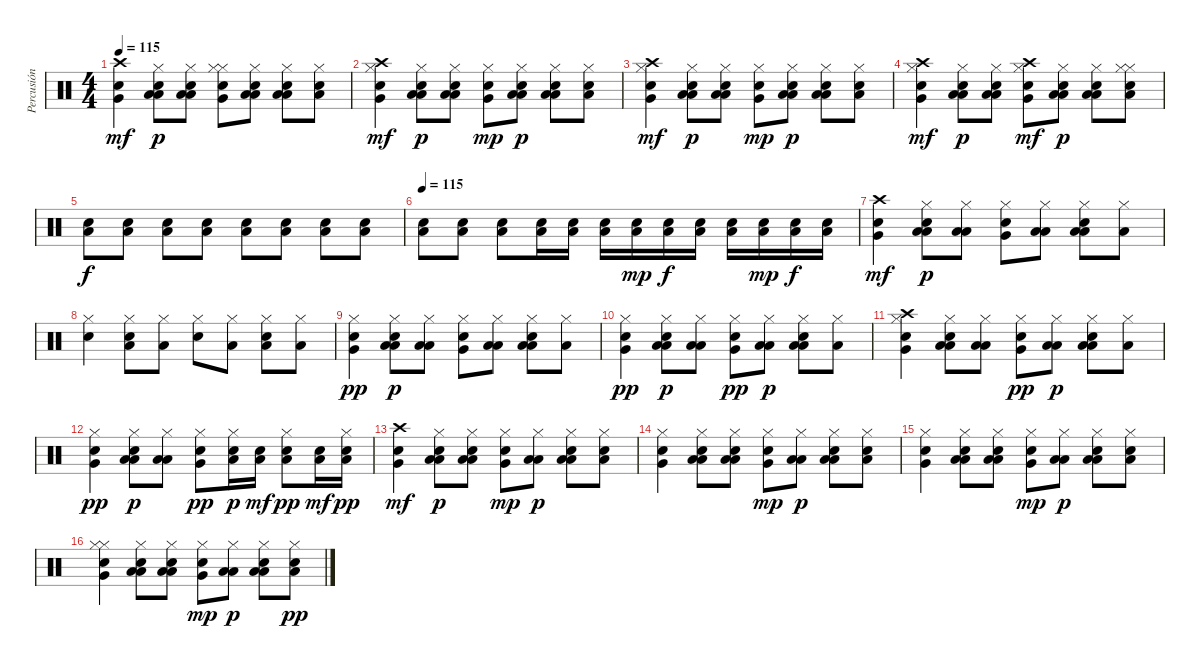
\track ("Percusión" "Percusión") {instrument percussion}
\staff {score}
\articulation defaults
\ts (4 4)
\tempo 115
\clef neutral
\ks c
("Snare (hit) 2" "Very Low Tom (hit)" "Crash high (hit)").4{dy mf} ("Low Floor Tom (hit)" "Low Floor Tom (hit)" "Snare (hit) 2" "Hi-Hat (closed)").8{dy p} ("Low Floor Tom (hit)" "Low Floor Tom (hit)" "Snare (hit) 2" "Hi-Hat (closed)").8 ("Snare (hit) 2" "Very Low Tom (hit)" "Hi-Hat (closed)" "Hi-Hat (closed)").8 ("Low Floor Tom (hit)" "Low Floor Tom (hit)" "Snare (hit) 2" "Hi-Hat (closed)").8 ("Low Floor Tom (hit)" "Low Floor Tom (hit)" "Snare (hit) 2" "Hi-Hat (closed)").8 ("Low Floor Tom (hit)" "Snare (hit) 2" "Hi-Hat (closed)").8 |
("Snare (hit) 2" "Very Low Tom (hit)" "Hi-Hat (closed)" "Crash high (hit)").4{dy mf} ("Low Floor Tom (hit)" "Low Floor Tom (hit)" "Snare (hit) 2" "Hi-Hat (closed)").8{dy p} ("Low Floor Tom (hit)" "Low Floor Tom (hit)" "Snare (hit) 2" "Hi-Hat (closed)").8 ("Snare (hit) 2" "Very Low Tom (hit)" "Hi-Hat (closed)").8{dy mp} ("Low Floor Tom (hit)" "Low Floor Tom (hit)" "Snare (hit) 2" "Hi-Hat (closed)").8{dy p} ("Low Floor Tom (hit)" "Low Floor Tom (hit)" "Snare (hit) 2" "Hi-Hat (closed)").8 ("Low Floor Tom (hit)" "Snare (hit) 2" "Hi-Hat (closed)").8 |
("Snare (hit) 2" "Very Low Tom (hit)" "Hi-Hat (closed)" "Crash high (hit)").4{dy mf} ("Low Floor Tom (hit)" "Low Floor Tom (hit)" "Snare (hit) 2" "Hi-Hat (closed)").8{dy p} ("Low Floor Tom (hit)" "Low Floor Tom (hit)" "Hi-Hat (closed)" "Snare (hit) 2").8 ("Snare (hit) 2" "Very Low Tom (hit)" "Hi-Hat (closed)").8{dy mp} ("Low Floor Tom (hit)" "Low Floor Tom (hit)" "Snare (hit) 2" "Hi-Hat (closed)").8{dy p} ("Low Floor Tom (hit)" "Low Floor Tom (hit)" "Snare (hit) 2" "Hi-Hat (closed)").8 ("Low Floor Tom (hit)" "Snare (hit) 2" "Hi-Hat (closed)").8 |
("Snare (hit) 2" "Very Low Tom (hit)" "Hi-Hat (closed)" "Crash high (hit)").4{dy mf} ("Low Floor Tom (hit)" "Low Floor Tom (hit)" "Snare (hit) 2" "Hi-Hat (closed)").8{dy p} ("Low Floor Tom (hit)" "Low Floor Tom (hit)" "Hi-Hat (closed)" "Snare (hit) 2").8 ("Snare (hit) 2" "Very Low Tom (hit)" "Hi-Hat (closed)" "Crash high (hit)").8{dy mf} ("Low Floor Tom (hit)" "Low Floor Tom (hit)" "Snare (hit) 2" "Hi-Hat (closed)").8{dy p} ("Low Floor Tom (hit)" "Low Floor Tom (hit)" "Snare (hit) 2" "Hi-Hat (closed)").8 ("Low Floor Tom (hit)" "Snare (hit) 2" "Hi-Hat (closed)" "Hi-Hat (closed)").8 |
("Snare (hit) 2" "Low Floor Tom (hit)").8{dy f} ("Snare (hit) 2" "Low Floor Tom (hit)").8 ("Snare (hit) 2" "Low Floor Tom (hit)").8 ("Snare (hit) 2" "Low Floor Tom (hit)").8 ("Snare (hit) 2" "Low Floor Tom (hit)").8 ("Snare (hit) 2" "Low Floor Tom (hit)").8 ("Snare (hit) 2" "Low Floor Tom (hit)").8 ("Snare (hit) 2" "Low Floor Tom (hit)").8 |
\tempo 115
("Snare (hit) 2" "Low Floor Tom (hit)").8 ("Snare (hit) 2" "Low Floor Tom (hit)").8 ("Snare (hit) 2" "Low Floor Tom (hit)").8 ("Snare (hit) 2" "Low Floor Tom (hit)").16 ("Snare (hit) 2" "Low Floor Tom (hit)").16 ("Snare (hit) 2" "Low Floor Tom (hit)").16 ("Snare (hit) 2" "Low Floor Tom (hit)").16{dy mp} ("Snare (hit) 2" "Low Floor Tom (hit)").16{dy f} ("Snare (hit) 2" "Low Floor Tom (hit)").16 ("Snare (hit) 2" "Low Floor Tom (hit)").16 ("Snare (hit) 2" "Low Floor Tom (hit)").16{dy mp} ("Snare (hit) 2" "Low Floor Tom (hit)").16{dy f} ("Snare (hit) 2" "Low Floor Tom (hit)").16 |
("Snare (hit) 2" "Very Low Tom (hit)" "Crash high (hit)").4{dy mf} ("Low Floor Tom (hit)" "Low Floor Tom (hit)" "Snare (hit) 2" "Hi-Hat (closed)").8{dy p} ("Low Floor Tom (hit)" "Low Floor Tom (hit)" "Hi-Hat (closed)").8 ("Snare (hit) 2" "Very Low Tom (hit)" "Hi-Hat (closed)").8 ("Low Floor Tom (hit)" "Low Floor Tom (hit)" "Hi-Hat (closed)").8 ("Low Floor Tom (hit)" "Low Floor Tom (hit)" "Snare (hit) 2" "Hi-Hat (closed)").8 ("Low Floor Tom (hit)" "Hi-Hat (closed)").8 |
("Snare (hit) 2" "Hi-Hat (closed)").4 ("Low Floor Tom (hit)" "Snare (hit) 2" "Hi-Hat (closed)").8 ("Low Floor Tom (hit)" "Hi-Hat (closed)").8 ("Snare (hit) 2" "Hi-Hat (closed)").8 ("Low Floor Tom (hit)" "Hi-Hat (closed)").8 ("Low Floor Tom (hit)" "Snare (hit) 2" "Hi-Hat (closed)").8 ("Low Floor Tom (hit)" "Hi-Hat (closed)").8 |
("Snare (hit) 2" "Very Low Tom (hit)" "Hi-Hat (closed)").4{dy pp} ("Low Floor Tom (hit)" "Low Floor Tom (hit)" "Snare (hit) 2" "Hi-Hat (closed)").8{dy p} ("Low Floor Tom (hit)" "Low Floor Tom (hit)" "Hi-Hat (closed)").8 ("Snare (hit) 2" "Very Low Tom (hit)" "Hi-Hat (closed)").8 ("Low Floor Tom (hit)" "Low Floor Tom (hit)" "Hi-Hat (closed)").8 ("Low Floor Tom (hit)" "Low Floor Tom (hit)" "Snare (hit) 2" "Hi-Hat (closed)").8 ("Low Floor Tom (hit)" "Hi-Hat (closed)").8 |
("Snare (hit) 2" "Very Low Tom (hit)" "Hi-Hat (closed)").4{dy pp} ("Low Floor Tom (hit)" "Low Floor Tom (hit)" "Snare (hit) 2" "Hi-Hat (closed)").8{dy p} ("Low Floor Tom (hit)" "Low Floor Tom (hit)" "Hi-Hat (closed)").8 ("Snare (hit) 2" "Very Low Tom (hit)" "Hi-Hat (closed)").8{dy pp} ("Low Floor Tom (hit)" "Low Floor Tom (hit)" "Hi-Hat (closed)").8{dy p} ("Low Floor Tom (hit)" "Low Floor Tom (hit)" "Snare (hit) 2" "Hi-Hat (closed)").8 ("Low Floor Tom (hit)" "Hi-Hat (closed)").8 |
("Snare (hit) 2" "Very Low Tom (hit)" "Crash high (hit)" "Hi-Hat (closed)").4 ("Low Floor Tom (hit)" "Low Floor Tom (hit)" "Snare (hit) 2" "Hi-Hat (closed)").8 ("Low Floor Tom (hit)" "Low Floor Tom (hit)" "Hi-Hat (closed)").8 ("Snare (hit) 2" "Very Low Tom (hit)" "Hi-Hat (closed)").8{dy pp} ("Low Floor Tom (hit)" "Low Floor Tom (hit)" "Hi-Hat (closed)").8{dy p} ("Low Floor Tom (hit)" "Low Floor Tom (hit)" "Snare (hit) 2" "Hi-Hat (closed)").8 ("Low Floor Tom (hit)" "Hi-Hat (closed)").8 |
("Snare (hit) 2" "Very Low Tom (hit)" "Hi-Hat (closed)").4{dy pp} ("Low Floor Tom (hit)" "Low Floor Tom (hit)" "Snare (hit) 2" "Hi-Hat (closed)").8{dy p} ("Low Floor Tom (hit)" "Low Floor Tom (hit)" "Hi-Hat (closed)").8 ("Snare (hit) 2" "Very Low Tom (hit)" "Hi-Hat (closed)").8{dy pp} ("Snare (hit) 2" "Low Floor Tom (hit)" "Hi-Hat (closed)").16{dy p} ("Snare (hit) 2" "Low Floor Tom (hit)").16{dy mf} ("Snare (hit) 2" "Low Floor Tom (hit)" "Hi-Hat (closed)").8{dy pp} ("Snare (hit) 2" "Low Floor Tom (hit)").16{dy mf} ("Snare (hit) 2" "Low Floor Tom (hit)" "Hi-Hat (closed)").16{dy pp} |
("Snare (hit) 2" "Very Low Tom (hit)" "Crash high (hit)").4{dy mf} ("Low Floor Tom (hit)" "Low Floor Tom (hit)" "Snare (hit) 2" "Hi-Hat (closed)").8{dy p} ("Low Floor Tom (hit)" "Low Floor Tom (hit)" "Snare (hit) 2" "Hi-Hat (closed)").8 ("Snare (hit) 2" "Very Low Tom (hit)" "Hi-Hat (closed)").8{dy mp} ("Low Floor Tom (hit)" "Low Floor Tom (hit)" "Hi-Hat (closed)").8{dy p} ("Low Floor Tom (hit)" "Low Floor Tom (hit)" "Snare (hit) 2" "Hi-Hat (closed)").8 ("Low Floor Tom (hit)" "Snare (hit) 2" "Hi-Hat (closed)").8 |
("Snare (hit) 2" "Very Low Tom (hit)" "Hi-Hat (closed)").4 ("Low Floor Tom (hit)" "Low Floor Tom (hit)" "Snare (hit) 2" "Hi-Hat (closed)").8 ("Low Floor Tom (hit)" "Low Floor Tom (hit)" "Snare (hit) 2" "Hi-Hat (closed)").8 ("Snare (hit) 2" "Very Low Tom (hit)" "Hi-Hat (closed)").8{dy mp} ("Low Floor Tom (hit)" "Low Floor Tom (hit)" "Hi-Hat (closed)").8{dy p} ("Low Floor Tom (hit)" "Low Floor Tom (hit)" "Snare (hit) 2" "Hi-Hat (closed)").8 ("Low Floor Tom (hit)" "Snare (hit) 2" "Hi-Hat (closed)").8 |
("Snare (hit) 2" "Very Low Tom (hit)" "Hi-Hat (closed)").4 ("Low Floor Tom (hit)" "Low Floor Tom (hit)" "Snare (hit) 2" "Hi-Hat (closed)").8 ("Low Floor Tom (hit)" "Low Floor Tom (hit)" "Hi-Hat (closed)" "Snare (hit) 2").8 ("Snare (hit) 2" "Very Low Tom (hit)" "Hi-Hat (closed)").8{dy mp} ("Low Floor Tom (hit)" "Low Floor Tom (hit)" "Hi-Hat (closed)").8{dy p} ("Low Floor Tom (hit)" "Low Floor Tom (hit)" "Snare (hit) 2" "Hi-Hat (closed)").8 ("Low Floor Tom (hit)" "Snare (hit) 2" "Hi-Hat (closed)").8 |
("Snare (hit) 2" "Very Low Tom (hit)" "Hi-Hat (closed)" "Hi-Hat (closed)").4 ("Low Floor Tom (hit)" "Low Floor Tom (hit)" "Snare (hit) 2" "Hi-Hat (closed)").8 ("Low Floor Tom (hit)" "Low Floor Tom (hit)" "Hi-Hat (closed)" "Snare (hit) 2").8 ("Snare (hit) 2" "Very Low Tom (hit)" "Hi-Hat (closed)").8{dy mp} ("Low Floor Tom (hit)" "Low Floor Tom (hit)" "Hi-Hat (closed)").8{dy p} ("Low Floor Tom (hit)" "Low Floor Tom (hit)" "Snare (hit) 2" "Hi-Hat (closed)").8 ("Low Floor Tom (hit)" "Snare (hit) 2" "Hi-Hat (closed)").8{dy pp}
